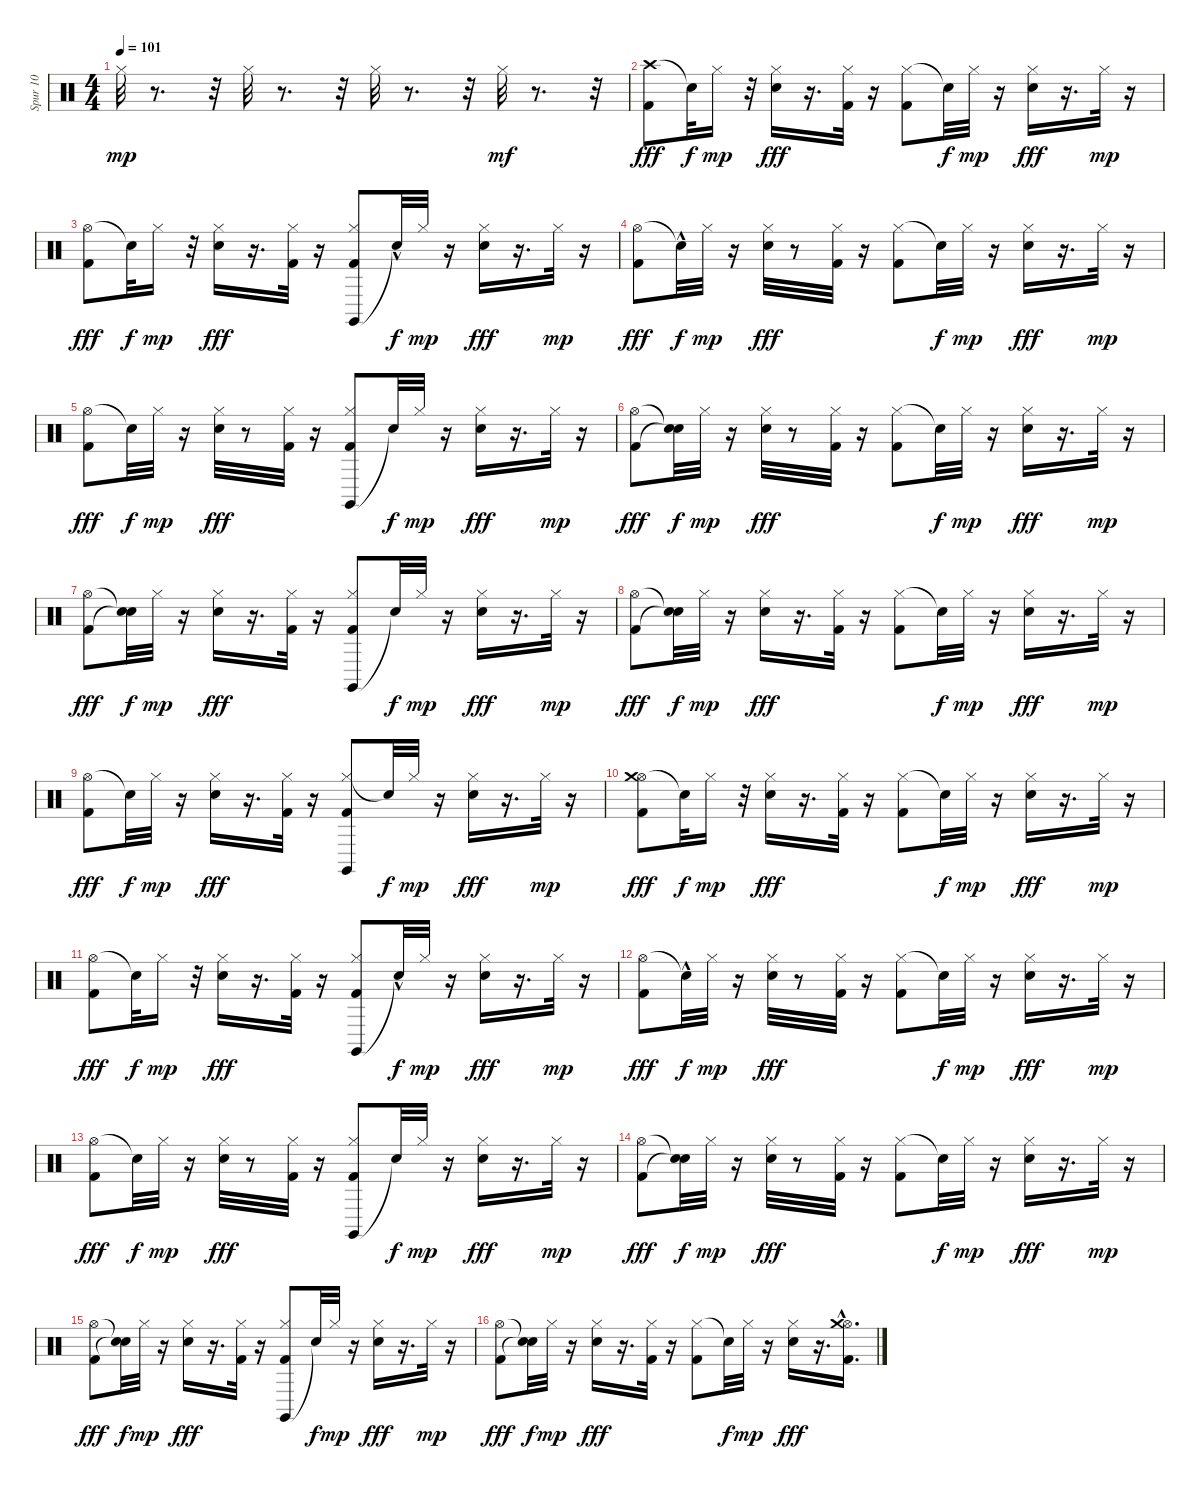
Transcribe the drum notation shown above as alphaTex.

\track ("Spur 10" "Spur 10") {instrument percussion}
\staff {score}
\articulation defaults
\ts (4 4)
\tempo 101
\clef neutral
\ks c "Hi-Hat (closed)".32{dy mp}
r.8{d} r.32 "Hi-Hat (closed)".32 r.8{d} r.32 "Hi-Hat (closed)".32 r.8{d} r.32 "Hi-Hat (closed)".32{dy mf} r.8{d} r.32 |
("Crash high (hit)" "Kick (hit) 2").8{dy fff} "Snare (hit)"{t}.32{dy f} "Hi-Hat (closed)".16{dy mp} r.32 ("Hi-Hat (closed)" "Snare (hit) 2").16{dy fff} r.16{d} ("Hi-Hat (closed)" "Kick (hit) 2").32 r.16 ("Hi-Hat (closed)" "Kick (hit) 2").8 "Snare (hit)"{t}.32{dy f} "Hi-Hat (closed)".32{dy mp} r.16 ("Hi-Hat (closed)" "Snare (hit) 2").16{dy fff} r.16{d} "Hi-Hat (closed)".32{dy mp} r.16 |
("Hi-Hat (open)" "Kick (hit) 2").8{dy fff} "Snare (hit)"{t}.32{dy f} "Hi-Hat (closed)".16{dy mp} r.32 ("Hi-Hat (closed)" "Snare (hit) 2").16{dy fff} r.16{d} ("Hi-Hat (closed)" "Kick (hit) 2").32 r.16 ("Claves (hit)" "Hi-Hat (closed)" "Kick (hit) 2").8 "Snare (hit)"{hac t}.32{dy f} "Hi-Hat (closed)".32{dy mp} r.16 ("Hi-Hat (closed)" "Snare (hit) 2").16{dy fff} r.16{d} "Hi-Hat (closed)".32{dy mp} r.16 |
("Hi-Hat (open)" "Kick (hit) 2").8{dy fff} "Snare (hit)"{hac t}.32{dy f} "Hi-Hat (closed)".32{dy mp} r.16 ("Hi-Hat (closed)" "Snare (hit) 2").32{dy fff} r.8 ("Hi-Hat (closed)" "Kick (hit) 2").32 r.16 ("Hi-Hat (closed)" "Kick (hit) 2").8 "Snare (hit)"{t}.32{dy f} "Hi-Hat (closed)".32{dy mp} r.16 ("Hi-Hat (closed)" "Snare (hit) 2").16{dy fff} r.16{d} "Hi-Hat (closed)".32{dy mp} r.16 |
("Hi-Hat (open)" "Kick (hit) 2").8{dy fff} "Snare (hit)"{t}.32{dy f} "Hi-Hat (closed)".32{dy mp} r.16 ("Hi-Hat (closed)" "Snare (hit) 2").32{dy fff} r.8 ("Hi-Hat (closed)" "Kick (hit) 2").32 r.16 ("Claves (hit)" "Hi-Hat (closed)" "Kick (hit) 2").8 "Snare (hit)"{t}.32{dy f} "Hi-Hat (closed)".32{dy mp} r.16 ("Hi-Hat (closed)" "Snare (hit) 2").16{dy fff} r.16{d} "Hi-Hat (closed)".32{dy mp} r.16 |
("Hi-Hat (open)" "Kick (hit) 2").8{dy fff} ("Snare (hit)"{t} "Snare (hit)"{t}).32{dy f} "Hi-Hat (closed)".32{dy mp} r.16 ("Hi-Hat (closed)" "Snare (hit) 2").32{dy fff} r.8 ("Hi-Hat (closed)" "Kick (hit) 2").32 r.16 ("Hi-Hat (closed)" "Kick (hit) 2").8 "Snare (hit)"{t}.32{dy f} "Hi-Hat (closed)".32{dy mp} r.16 ("Hi-Hat (closed)" "Snare (hit) 2").16{dy fff} r.16{d} "Hi-Hat (closed)".32{dy mp} r.16 |
("Hi-Hat (open)" "Kick (hit) 2").8{dy fff} ("Snare (hit)"{t} "Snare (hit)"{t}).32{dy f} "Hi-Hat (closed)".32{dy mp} r.16 ("Hi-Hat (closed)" "Snare (hit) 2").16{dy fff} r.16{d} ("Hi-Hat (closed)" "Kick (hit) 2").32 r.16 ("Claves (hit)" "Hi-Hat (closed)" "Kick (hit) 2").8 "Snare (hit)"{t}.32{dy f} "Hi-Hat (closed)".32{dy mp} r.16 ("Hi-Hat (closed)" "Snare (hit) 2").16{dy fff} r.16{d} "Hi-Hat (closed)".32{dy mp} r.16 |
("Hi-Hat (open)" "Kick (hit) 2").8{dy fff} ("Snare (hit)"{t} "Snare (hit)"{t}).32{dy f} "Hi-Hat (closed)".32{dy mp} r.16 ("Hi-Hat (closed)" "Snare (hit) 2").16{dy fff} r.16{d} ("Hi-Hat (closed)" "Kick (hit) 2").32 r.16 ("Hi-Hat (closed)" "Kick (hit) 2").8 "Snare (hit)"{t}.32{dy f} "Hi-Hat (closed)".32{dy mp} r.16 ("Hi-Hat (closed)" "Snare (hit) 2").16{dy fff} r.16{d} "Hi-Hat (closed)".32{dy mp} r.16 |
("Hi-Hat (open)" "Kick (hit) 2").8{dy fff} "Snare (hit)"{t}.32{dy f} "Hi-Hat (closed)".32{dy mp} r.16 ("Hi-Hat (closed)" "Snare (hit) 2").16{dy fff} r.16{d} ("Hi-Hat (closed)" "Kick (hit) 2").32 r.16 ("Hi-Hat (closed)" "Kick (hit) 2" "Claves (hit)").8 "Snare (hit)"{t}.32{dy f} "Hi-Hat (closed)".32{dy mp} r.16 ("Hi-Hat (closed)" "Snare (hit) 2").16{dy fff} r.16{d} "Hi-Hat (closed)".32{dy mp} r.16 |
("Hi-Hat (open)" "Kick (hit) 2" "Crash medium (hit)").8{dy fff} "Snare (hit)"{t}.32{dy f} "Hi-Hat (closed)".16{dy mp} r.32 ("Hi-Hat (closed)" "Snare (hit) 2").16{dy fff} r.16{d} ("Hi-Hat (closed)" "Kick (hit) 2").32 r.16 ("Hi-Hat (closed)" "Kick (hit) 2").8 "Snare (hit)"{t}.32{dy f} "Hi-Hat (closed)".32{dy mp} r.16 ("Hi-Hat (closed)" "Snare (hit) 2").16{dy fff} r.16{d} "Hi-Hat (closed)".32{dy mp} r.16 |
("Hi-Hat (open)" "Kick (hit) 2").8{dy fff} "Snare (hit)"{t}.32{dy f} "Hi-Hat (closed)".16{dy mp} r.32 ("Hi-Hat (closed)" "Snare (hit) 2").16{dy fff} r.16{d} ("Hi-Hat (closed)" "Kick (hit) 2").32 r.16 ("Claves (hit)" "Hi-Hat (closed)" "Kick (hit) 2").8 "Snare (hit)"{hac t}.32{dy f} "Hi-Hat (closed)".32{dy mp} r.16 ("Hi-Hat (closed)" "Snare (hit) 2").16{dy fff} r.16{d} "Hi-Hat (closed)".32{dy mp} r.16 |
("Hi-Hat (open)" "Kick (hit) 2").8{dy fff} "Snare (hit)"{hac t}.32{dy f} "Hi-Hat (closed)".32{dy mp} r.16 ("Hi-Hat (closed)" "Snare (hit) 2").32{dy fff} r.8 ("Hi-Hat (closed)" "Kick (hit) 2").32 r.16 ("Hi-Hat (closed)" "Kick (hit) 2").8 "Snare (hit)"{t}.32{dy f} "Hi-Hat (closed)".32{dy mp} r.16 ("Hi-Hat (closed)" "Snare (hit) 2").16{dy fff} r.16{d} "Hi-Hat (closed)".32{dy mp} r.16 |
("Hi-Hat (open)" "Kick (hit) 2").8{dy fff} "Snare (hit)"{t}.32{dy f} "Hi-Hat (closed)".32{dy mp} r.16 ("Hi-Hat (closed)" "Snare (hit) 2").32{dy fff} r.8 ("Hi-Hat (closed)" "Kick (hit) 2").32 r.16 ("Claves (hit)" "Hi-Hat (closed)" "Kick (hit) 2").8 "Snare (hit)"{t}.32{dy f} "Hi-Hat (closed)".32{dy mp} r.16 ("Hi-Hat (closed)" "Snare (hit) 2").16{dy fff} r.16{d} "Hi-Hat (closed)".32{dy mp} r.16 |
("Hi-Hat (open)" "Kick (hit) 2").8{dy fff} ("Snare (hit)"{t} "Snare (hit)"{t}).32{dy f} "Hi-Hat (closed)".32{dy mp} r.16 ("Hi-Hat (closed)" "Snare (hit) 2").32{dy fff} r.8 ("Hi-Hat (closed)" "Kick (hit) 2").32 r.16 ("Hi-Hat (closed)" "Kick (hit) 2").8 "Snare (hit)"{t}.32{dy f} "Hi-Hat (closed)".32{dy mp} r.16 ("Hi-Hat (closed)" "Snare (hit) 2").16{dy fff} r.16{d} "Hi-Hat (closed)".32{dy mp} r.16 |
("Hi-Hat (open)" "Kick (hit) 2").8{dy fff} ("Snare (hit)"{t} "Snare (hit)"{t}).32{dy f} "Hi-Hat (closed)".32{dy mp} r.16 ("Hi-Hat (closed)" "Snare (hit) 2").16{dy fff} r.16{d} ("Hi-Hat (closed)" "Kick (hit) 2").32 r.16 ("Claves (hit)" "Hi-Hat (closed)" "Kick (hit) 2").8 "Snare (hit)"{t}.32{dy f} "Hi-Hat (closed)".32{dy mp} r.16 ("Hi-Hat (closed)" "Snare (hit) 2").16{dy fff} r.16{d} "Hi-Hat (closed)".32{dy mp} r.16 |
("Hi-Hat (open)" "Kick (hit) 2").8{dy fff} ("Snare (hit)"{t} "Snare (hit)"{t}).32{dy f} "Hi-Hat (closed)".32{dy mp} r.16 ("Hi-Hat (closed)" "Snare (hit) 2").16{dy fff} r.16{d} ("Hi-Hat (closed)" "Kick (hit) 2").32 r.16 ("Hi-Hat (closed)" "Kick (hit) 2").8 "Snare (hit)"{t}.32{dy f} "Hi-Hat (closed)".32{dy mp} r.16 ("Hi-Hat (closed)" "Snare (hit) 2").16{dy fff} r.16{d} ("Hi-Hat (open)"{hac} "Kick (hit) 2"{hac} "Crash medium (hit)").16{d}
